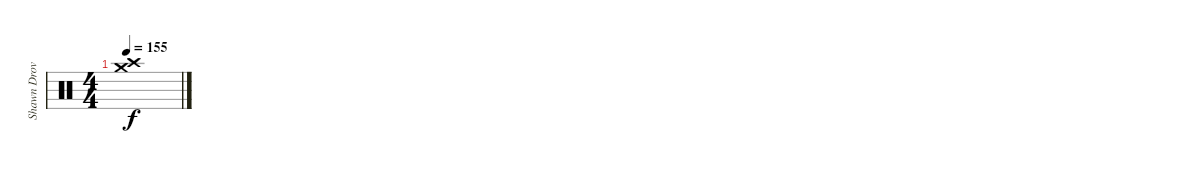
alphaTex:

\track ("Shawn Drover" "Shawn Drov") {instrument percussion}
\staff {score}
\articulation defaults
\ts (4 4)
\tempo 155
\clef neutral
\ks c
("Crash medium (hit)" "Crash high (hit)").1{dy f}
